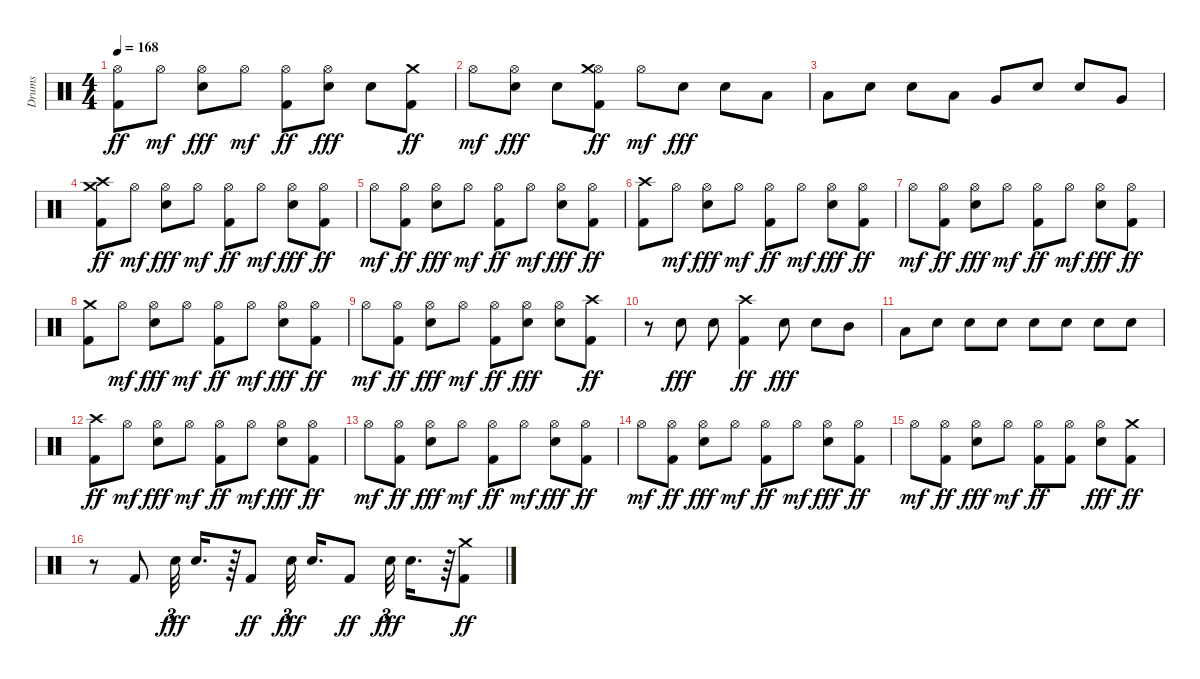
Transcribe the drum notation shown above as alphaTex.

\track ("Drums" "Drums") {instrument percussion}
\staff {score}
\articulation defaults
\ts (4 4)
\tempo 168
\clef neutral
\ks c
("Hi-Hat (open)" "Kick (hit) 2").8{dy ff} "Hi-Hat (open)".8{dy mf} ("Hi-Hat (open)" "Snare (hit) 2").8{dy fff} "Hi-Hat (open)".8{dy mf} ("Hi-Hat (open)" "Kick (hit) 2").8{dy ff} ("Hi-Hat (open)" "Snare (hit) 2").8{dy fff} "Snare (hit) 2".8 ("Kick (hit) 2" "Crash medium (hit)").8{dy ff} |
"Hi-Hat (open)".8{dy mf} ("Hi-Hat (open)" "Snare (hit) 2").8{dy fff} "Electric Snare (hit)".8 ("Hi-Hat (open)" "Kick (hit) 2" "Crash medium (hit)").8{dy ff} "Hi-Hat (open)".8{dy mf} "Snare (hit) 2".8{dy fff} "Snare (hit) 2".8 "Low Tom (hit)".8 |
"Low Tom (hit)".8 "Snare (hit) 2".8 "Snare (hit) 2".8 "Low Tom (hit)".8 "Very Low Tom (hit)".8 "Snare (hit) 2".8 "Snare (hit) 2".8 "Very Low Tom (hit)".8 |
("Kick (hit) 2" "Crash high (hit)" "Crash medium (hit)").8{dy ff} "Hi-Hat (open)".8{dy mf} ("Hi-Hat (open)" "Snare (hit) 2").8{dy fff} "Hi-Hat (open)".8{dy mf} ("Hi-Hat (open)" "Kick (hit) 2").8{dy ff} "Hi-Hat (open)".8{dy mf} ("Hi-Hat (open)" "Snare (hit) 2").8{dy fff} ("Hi-Hat (open)" "Kick (hit) 2").8{dy ff} |
"Hi-Hat (open)".8{dy mf} ("Hi-Hat (open)" "Kick (hit) 2").8{dy ff} ("Hi-Hat (open)" "Snare (hit) 2").8{dy fff} "Hi-Hat (open)".8{dy mf} ("Hi-Hat (open)" "Kick (hit) 2").8{dy ff} "Hi-Hat (open)".8{dy mf} ("Hi-Hat (open)" "Snare (hit) 2").8{dy fff} ("Hi-Hat (open)" "Kick (hit) 2").8{dy ff} |
("Kick (hit) 2" "Crash high (hit)").8 "Hi-Hat (open)".8{dy mf} ("Hi-Hat (open)" "Snare (hit) 2").8{dy fff} "Hi-Hat (open)".8{dy mf} ("Hi-Hat (open)" "Kick (hit) 2").8{dy ff} "Hi-Hat (open)".8{dy mf} ("Hi-Hat (open)" "Snare (hit) 2").8{dy fff} ("Hi-Hat (open)" "Kick (hit) 2").8{dy ff} |
"Hi-Hat (open)".8{dy mf} ("Hi-Hat (open)" "Kick (hit) 2").8{dy ff} ("Hi-Hat (open)" "Snare (hit) 2").8{dy fff} "Hi-Hat (open)".8{dy mf} ("Hi-Hat (open)" "Kick (hit) 2").8{dy ff} "Hi-Hat (open)".8{dy mf} ("Hi-Hat (open)" "Snare (hit) 2").8{dy fff} ("Hi-Hat (open)" "Kick (hit) 2").8{dy ff} |
("Kick (hit) 2" "Crash medium (hit)").8 "Hi-Hat (open)".8{dy mf} ("Hi-Hat (open)" "Snare (hit) 2").8{dy fff} "Hi-Hat (open)".8{dy mf} ("Hi-Hat (open)" "Kick (hit) 2").8{dy ff} "Hi-Hat (open)".8{dy mf} ("Hi-Hat (open)" "Snare (hit) 2").8{dy fff} ("Hi-Hat (open)" "Kick (hit) 2").8{dy ff} |
"Hi-Hat (open)".8{dy mf} ("Hi-Hat (open)" "Kick (hit) 2").8{dy ff} ("Hi-Hat (open)" "Snare (hit) 2").8{dy fff} "Hi-Hat (open)".8{dy mf} ("Hi-Hat (open)" "Kick (hit) 2").8{dy ff} ("Hi-Hat (open)" "Snare (hit) 2").8{dy fff} ("Hi-Hat (open)" "Snare (hit) 2").8 ("Kick (hit) 2" "Crash high (hit)").8{dy ff} |
r.8 "Snare (hit) 2".8{dy fff} "Snare (hit) 2".8 ("Kick (hit) 2" "Crash high (hit)").4{dy ff} "Snare (hit) 2".8{dy fff} "Snare (hit) 2".8 "Mid Tom (hit)".8 |
"Low Tom (hit)".8 "Snare (hit) 2".8 "Snare (hit) 2".8 "Snare (hit) 2".8 "Snare (hit) 2".8 "Snare (hit) 2".8 "Snare (hit) 2".8 "Snare (hit) 2".8 |
("Kick (hit) 2" "Crash high (hit)").8{dy ff} "Hi-Hat (open)".8{dy mf} ("Hi-Hat (open)" "Snare (hit) 2").8{dy fff} "Hi-Hat (open)".8{dy mf} ("Hi-Hat (open)" "Kick (hit) 2").8{dy ff} "Hi-Hat (open)".8{dy mf} ("Hi-Hat (open)" "Snare (hit) 2").8{dy fff} ("Hi-Hat (open)" "Kick (hit) 2").8{dy ff} |
"Hi-Hat (open)".8{dy mf} ("Hi-Hat (open)" "Kick (hit) 2").8{dy ff} ("Hi-Hat (open)" "Snare (hit) 2").8{dy fff} "Hi-Hat (open)".8{dy mf} ("Hi-Hat (open)" "Kick (hit) 2").8{dy ff} "Hi-Hat (open)".8{dy mf} ("Hi-Hat (open)" "Snare (hit) 2").8{dy fff} ("Hi-Hat (open)" "Kick (hit) 2").8{dy ff} |
"Hi-Hat (open)".8{dy mf} ("Hi-Hat (open)" "Kick (hit) 2").8{dy ff} ("Hi-Hat (open)" "Snare (hit) 2").8{dy fff} "Hi-Hat (open)".8{dy mf} ("Hi-Hat (open)" "Kick (hit) 2").8{dy ff} "Hi-Hat (open)".8{dy mf} ("Hi-Hat (open)" "Snare (hit) 2").8{dy fff} ("Hi-Hat (open)" "Kick (hit) 2").8{dy ff} |
"Hi-Hat (open)".8{dy mf} ("Hi-Hat (open)" "Kick (hit) 2").8{dy ff} ("Hi-Hat (open)" "Snare (hit) 2").8{dy fff} "Hi-Hat (open)".8{dy mf} ("Hi-Hat (open)" "Kick (hit) 2").8{dy ff} ("Hi-Hat (open)" "Kick (hit) 2").8 ("Hi-Hat (open)" "Snare (hit) 2").8{dy fff} ("Kick (hit) 2" "Crash medium (hit)").8{dy ff} |
r.8 "Kick (hit) 2".8 "Snare (hit) 2".32{tu (3 2) dy fff} "Snare (hit) 2".16{d} r.64 "Kick (hit) 2".8{dy ff} "Snare (hit) 2".32{tu (3 2) dy fff beam splitsecondary} "Snare (hit) 2".16{d} "Kick (hit) 2".8{dy ff} "Snare (hit) 2".32{tu (3 2) dy fff} "Snare (hit) 2".16{d} r.64 ("Kick (hit) 2" "Crash medium (hit)").8{dy ff}
